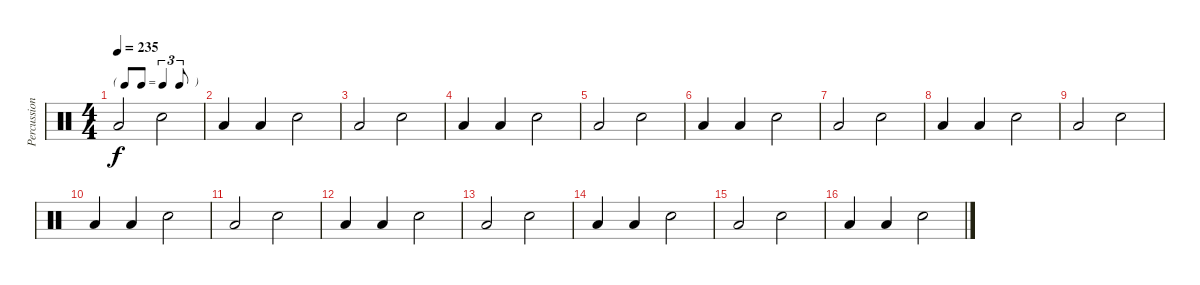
\track ("Percussions" "Percussion") {instrument percussion}
\staff {score}
\articulation defaults
\ts (4 4)
\tf triplet8th
\tempo 235
\clef neutral
\ks c "Low Tom (hit)".2{dy f} "Snare (hit) 2".2
|
"Low Tom (hit)".4 "Low Tom (hit)".4 "Snare (hit) 2".2 |
"Low Tom (hit)".2 "Snare (hit) 2".2 |
"Low Tom (hit)".4 "Low Tom (hit)".4 "Snare (hit) 2".2 |
"Low Tom (hit)".2 "Snare (hit) 2".2 |
"Low Tom (hit)".4 "Low Tom (hit)".4 "Snare (hit) 2".2 |
"Low Tom (hit)".2 "Snare (hit) 2".2 |
"Low Tom (hit)".4 "Low Tom (hit)".4 "Snare (hit) 2".2 |
"Low Tom (hit)".2 "Snare (hit) 2".2 |
"Low Tom (hit)".4 "Low Tom (hit)".4 "Snare (hit) 2".2 |
"Low Tom (hit)".2 "Snare (hit) 2".2 |
"Low Tom (hit)".4 "Low Tom (hit)".4 "Snare (hit) 2".2 |
"Low Tom (hit)".2 "Snare (hit) 2".2 |
"Low Tom (hit)".4 "Low Tom (hit)".4 "Snare (hit) 2".2 |
"Low Tom (hit)".2 "Snare (hit) 2".2 |
"Low Tom (hit)".4 "Low Tom (hit)".4 "Snare (hit) 2".2
